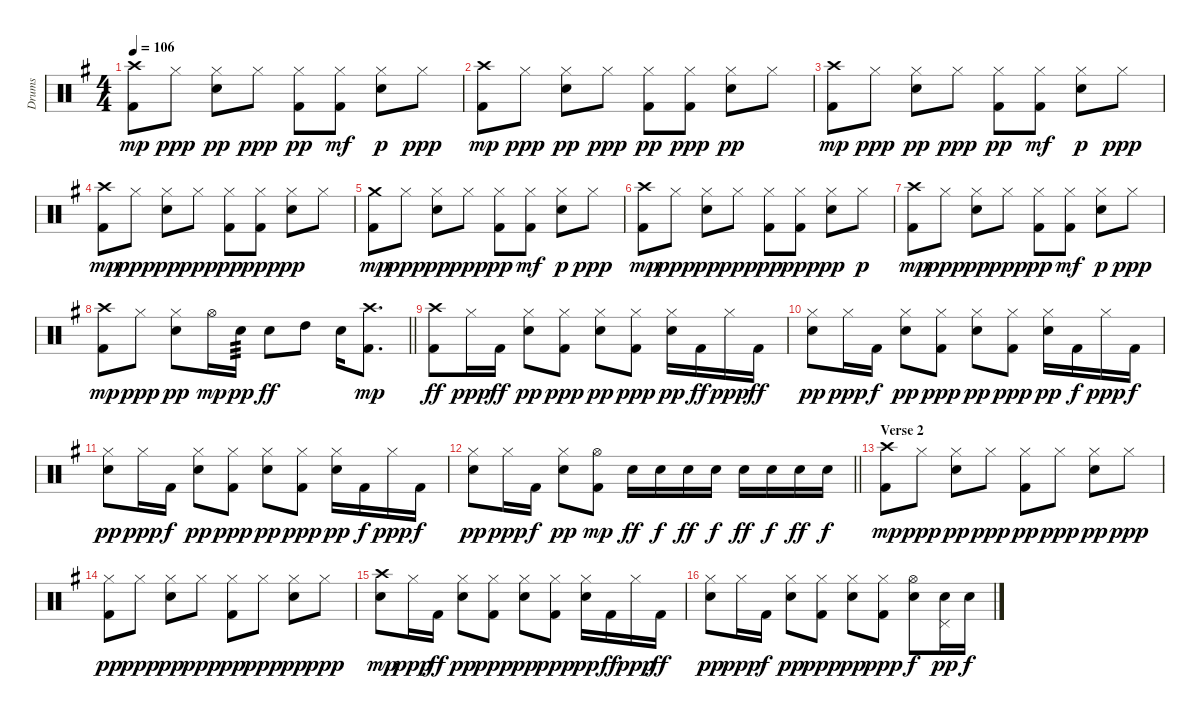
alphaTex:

\track ("Drums" "Drums") {instrument percussion}
\staff {score}
\articulation defaults
\ts (4 4)
\tempo 106
\clef neutral
\ks g
("Kick (hit) 2" "Crash high (hit)").8{dy mp} "Hi-Hat (closed)".8{dy ppp} ("Hi-Hat (closed)" "Electric Snare (hit)").8{dy pp} "Hi-Hat (closed)".8{dy ppp} ("Hi-Hat (closed)" "Kick (hit) 2").8{dy pp} ("Hi-Hat (closed)" "Kick (hit) 2").8{dy mf} ("Hi-Hat (closed)" "Electric Snare (hit)").8{dy p} "Hi-Hat (closed)".8{dy ppp} |
("Kick (hit) 2" "Crash high (hit)").8{dy mp} "Hi-Hat (closed)".8{dy ppp} ("Hi-Hat (closed)" "Electric Snare (hit)").8{dy pp} "Hi-Hat (closed)".8{dy ppp} ("Hi-Hat (closed)" "Kick (hit) 2").8{dy pp} ("Hi-Hat (closed)" "Kick (hit) 2").8{dy ppp} ("Hi-Hat (closed)" "Electric Snare (hit)").8{dy pp} "Hi-Hat (closed)".8 |
("Kick (hit) 2" "Crash high (hit)").8{dy mp} "Hi-Hat (closed)".8{dy ppp} ("Hi-Hat (closed)" "Electric Snare (hit)").8{dy pp} "Hi-Hat (closed)".8{dy ppp} ("Hi-Hat (closed)" "Kick (hit) 2").8{dy pp} ("Hi-Hat (closed)" "Kick (hit) 2").8{dy mf} ("Hi-Hat (closed)" "Electric Snare (hit)").8{dy p} "Hi-Hat (closed)".8{dy ppp} |
("Kick (hit) 2" "Crash high (hit)").8{dy mp} "Hi-Hat (closed)".8{dy ppp} ("Hi-Hat (closed)" "Electric Snare (hit)").8{dy pp} "Hi-Hat (closed)".8{dy ppp} ("Hi-Hat (closed)" "Kick (hit) 2").8{dy pp} ("Hi-Hat (closed)" "Kick (hit) 2").8{dy ppp} ("Hi-Hat (closed)" "Electric Snare (hit)").8{dy pp} "Hi-Hat (closed)".8 |
("Kick (hit) 2" "Crash medium (hit)").8{dy mp} "Hi-Hat (closed)".8{dy ppp} ("Hi-Hat (closed)" "Electric Snare (hit)").8{dy pp} "Hi-Hat (closed)".8{dy ppp} ("Hi-Hat (closed)" "Kick (hit) 2").8{dy pp} ("Hi-Hat (closed)" "Kick (hit) 2").8{dy mf} ("Hi-Hat (closed)" "Electric Snare (hit)").8{dy p} "Hi-Hat (closed)".8{dy ppp} |
("Kick (hit) 2" "Crash high (hit)").8{dy mp} "Hi-Hat (closed)".8{dy ppp} ("Hi-Hat (closed)" "Electric Snare (hit)").8{dy pp} "Hi-Hat (closed)".8{dy ppp} ("Hi-Hat (closed)" "Kick (hit) 2").8{dy pp} ("Hi-Hat (closed)" "Kick (hit) 2").8{dy ppp} ("Hi-Hat (closed)" "Electric Snare (hit)").8{dy pp} "Hi-Hat (closed)".8{dy p} |
("Kick (hit) 2" "Crash high (hit)").8{dy mp} "Hi-Hat (closed)".8{dy ppp} ("Hi-Hat (closed)" "Electric Snare (hit)").8{dy pp} "Hi-Hat (closed)".8{dy ppp} ("Hi-Hat (closed)" "Kick (hit) 2").8{dy pp} ("Hi-Hat (closed)" "Kick (hit) 2").8{dy mf} ("Hi-Hat (closed)" "Electric Snare (hit)").8{dy p} "Hi-Hat (closed)".8{dy ppp} |
\barLineRight lightlight
("Kick (hit) 2" "Crash high (hit)").8{dy mp} "Hi-Hat (closed)".8{dy ppp} ("Hi-Hat (closed)" "Electric Snare (hit)").8{dy pp} "Hi-Hat (open)".16{dy mp} "Electric Snare (hit)".16{tp 3 dy pp} "Electric Snare (hit)".8{dy ff} "High Tom (hit)".8 "Electric Snare (hit)".16 ("Kick (hit) 2" "Crash high (hit)").8{d dy mp} |
("Crash high (hit)" "Kick (hit) 2").8{dy ff} "Hi-Hat (closed)".16{dy ppp} "Kick (hit) 2".16{dy ff} ("Electric Snare (hit)" "Hi-Hat (closed)").8{dy pp} ("Kick (hit) 2" "Hi-Hat (closed)").8{dy ppp} ("Electric Snare (hit)" "Hi-Hat (closed)").8{dy pp} ("Kick (hit) 2" "Hi-Hat (closed)").8{dy ppp} ("Electric Snare (hit)" "Hi-Hat (closed)").16{dy pp} "Kick (hit) 2".16{dy ff} "Hi-Hat (closed)".16{dy ppp} "Kick (hit) 2".16{dy ff} |
("Electric Snare (hit)" "Hi-Hat (closed)").8{dy pp} "Hi-Hat (closed)".16{dy ppp} "Kick (hit) 2".16{dy f} ("Electric Snare (hit)" "Hi-Hat (closed)").8{dy pp} ("Kick (hit) 2" "Hi-Hat (closed)").8{dy ppp} ("Electric Snare (hit)" "Hi-Hat (closed)").8{dy pp} ("Kick (hit) 2" "Hi-Hat (closed)").8{dy ppp} ("Electric Snare (hit)" "Hi-Hat (closed)").16{dy pp} "Kick (hit) 2".16{dy f} "Hi-Hat (closed)".16{dy ppp} "Kick (hit) 2".16{dy f} |
("Electric Snare (hit)" "Hi-Hat (closed)").8{dy pp} "Hi-Hat (closed)".16{dy ppp} "Kick (hit) 2".16{dy f} ("Electric Snare (hit)" "Hi-Hat (closed)").8{dy pp} ("Kick (hit) 2" "Hi-Hat (closed)").8{dy ppp} ("Electric Snare (hit)" "Hi-Hat (closed)").8{dy pp} ("Kick (hit) 2" "Hi-Hat (closed)").8{dy ppp} ("Electric Snare (hit)" "Hi-Hat (closed)").16{dy pp} "Kick (hit) 2".16{dy f} "Hi-Hat (closed)".16{dy ppp} "Kick (hit) 2".16{dy f} |
\barLineRight lightlight
("Electric Snare (hit)" "Hi-Hat (closed)").8{dy pp} "Hi-Hat (closed)".16{dy ppp} "Kick (hit) 2".16{dy f} ("Electric Snare (hit)" "Hi-Hat (closed)").8{dy pp} ("Kick (hit) 2" "Hi-Hat (open)").8{dy mp} "Electric Snare (hit)".16{dy ff} "Electric Snare (hit)".16{dy f} "Electric Snare (hit)".16{dy ff} "Electric Snare (hit)".16{dy f} "Electric Snare (hit)".16{dy ff} "Electric Snare (hit)".16{dy f} "Electric Snare (hit)".16{dy ff} "Electric Snare (hit)".16{dy f} |
\section ("" "Verse 2")
("Kick (hit) 2" "Crash high (hit)").8{dy mp} "Hi-Hat (closed)".8{dy ppp} ("Hi-Hat (closed)" "Electric Snare (hit)").8{dy pp} "Hi-Hat (closed)".8{dy ppp} ("Hi-Hat (closed)" "Kick (hit) 2").8{dy pp} "Hi-Hat (closed)".8{dy ppp} ("Hi-Hat (closed)" "Electric Snare (hit)").8{dy pp} "Hi-Hat (closed)".8{dy ppp} |
("Hi-Hat (closed)" "Kick (hit) 2").8{dy pp} "Hi-Hat (closed)".8{dy ppp} ("Hi-Hat (closed)" "Electric Snare (hit)").8{dy pp} "Hi-Hat (closed)".8{dy ppp} ("Hi-Hat (closed)" "Kick (hit) 2").8{dy pp} "Hi-Hat (closed)".8{dy ppp} ("Hi-Hat (closed)" "Electric Snare (hit)").8{dy pp} "Hi-Hat (closed)".8{dy ppp} |
("Electric Snare (hit)" "Crash high (hit)").8{dy mp} "Hi-Hat (closed)".16{dy ppp} "Kick (hit) 2".16{dy ff} ("Electric Snare (hit)" "Hi-Hat (closed)").8{dy pp} ("Kick (hit) 2" "Hi-Hat (closed)").8{dy ppp} ("Electric Snare (hit)" "Hi-Hat (closed)").8{dy pp} ("Kick (hit) 2" "Hi-Hat (closed)").8{dy ppp} ("Electric Snare (hit)" "Hi-Hat (closed)").16{dy pp} "Kick (hit) 2".16{dy ff} "Hi-Hat (closed)".16{dy ppp} "Kick (hit) 2".16{dy ff} |
("Electric Snare (hit)" "Hi-Hat (closed)").8{dy pp} "Hi-Hat (closed)".16{dy ppp} "Kick (hit) 2".16{dy f} ("Electric Snare (hit)" "Hi-Hat (closed)").8{dy pp} ("Kick (hit) 2" "Hi-Hat (closed)").8{dy ppp} ("Electric Snare (hit)" "Hi-Hat (closed)").8{dy pp} ("Kick (hit) 2" "Hi-Hat (closed)").8{dy ppp} ("Electric Snare (hit)" "Hi-Hat (open)").8{dy f} ("Electric Snare (hit)" "Pedal Hi-Hat (hit)").16{dy pp} "Electric Snare (hit)".16{dy f}
